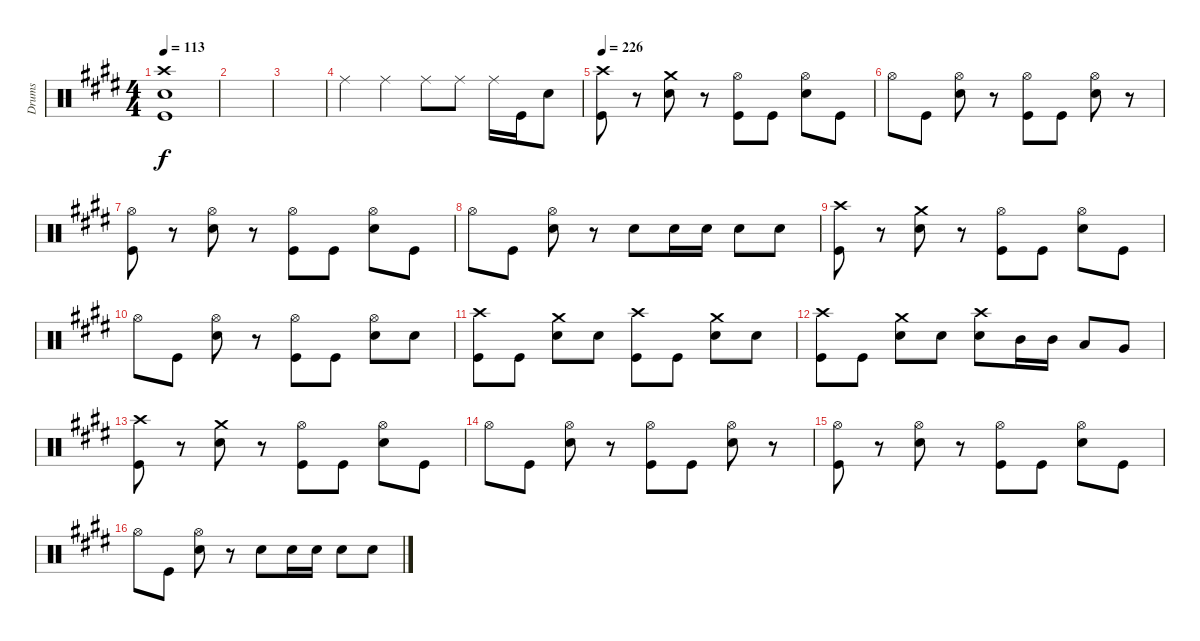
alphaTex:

\track ("Drums" "Drums") {instrument percussion}
\staff {score}
\articulation defaults
\ts (4 4)
\tempo 113
\clef neutral
\ks e
("Crash high (hit)" "Snare (hit) 2" "Kick (hit)").1{dy f} |
|
|
"Ride (middle)".4 "Ride (middle)".4 "Ride (middle)".8 "Ride (middle)".8 "Ride (middle)".16 "Kick (hit)".16 "Snare (hit) 2".8 |
\tempo 226
("Crash high (hit)" "Kick (hit)").8 r.8 ("Crash medium (hit)" "Snare (hit) 2").8 r.8 ("Hi-Hat (open)" "Kick (hit)").8 "Kick (hit)".8 ("Hi-Hat (open)" "Snare (hit) 2").8 "Kick (hit)".8 |
"Hi-Hat (open)".8 "Kick (hit)".8 ("Hi-Hat (open)" "Snare (hit) 2").8 r.8 ("Hi-Hat (open)" "Kick (hit)").8 "Kick (hit)".8 ("Hi-Hat (open)" "Snare (hit) 2").8 r.8 |
("Hi-Hat (open)" "Kick (hit)").8 r.8 ("Hi-Hat (open)" "Snare (hit) 2").8 r.8 ("Hi-Hat (open)" "Kick (hit)").8 "Kick (hit)".8 ("Hi-Hat (open)" "Snare (hit) 2").8 "Kick (hit)".8 |
"Hi-Hat (open)".8 "Kick (hit)".8 ("Hi-Hat (open)" "Snare (hit) 2").8 r.8 "Snare (hit) 2".8 "Snare (hit) 2".16 "Snare (hit) 2".16 "Snare (hit) 2".8 "Snare (hit) 2".8 |
("Crash high (hit)" "Kick (hit)").8 r.8 ("Crash medium (hit)" "Snare (hit) 2").8 r.8 ("Hi-Hat (open)" "Kick (hit)").8 "Kick (hit)".8 ("Hi-Hat (open)" "Snare (hit) 2").8 "Kick (hit)".8 |
"Hi-Hat (open)".8 "Kick (hit)".8 ("Hi-Hat (open)" "Snare (hit) 2").8 r.8 ("Hi-Hat (open)" "Kick (hit)").8 "Kick (hit)".8 ("Hi-Hat (open)" "Snare (hit) 2").8 "Snare (hit) 2".8 |
("Crash high (hit)" "Kick (hit)").8 "Kick (hit)".8 ("Crash medium (hit)" "Snare (hit) 2").8 "Snare (hit) 2".8 ("Crash high (hit)" "Kick (hit)").8 "Kick (hit)".8 ("Crash medium (hit)" "Snare (hit) 2").8 "Snare (hit) 2".8 |
("Crash high (hit)" "Kick (hit)").8 "Kick (hit)".8 ("Crash medium (hit)" "Snare (hit) 2").8 "Snare (hit) 2".8 ("Crash high (hit)" "Snare (hit) 2").8 "Mid Tom (hit)".16 "Mid Tom (hit)".16 "Low Tom (hit)".8 "Very Low Tom (hit)".8 |
("Crash high (hit)" "Kick (hit)").8 r.8 ("Crash medium (hit)" "Snare (hit) 2").8 r.8 ("Hi-Hat (open)" "Kick (hit)").8 "Kick (hit)".8 ("Hi-Hat (open)" "Snare (hit) 2").8 "Kick (hit)".8 |
"Hi-Hat (open)".8 "Kick (hit)".8 ("Hi-Hat (open)" "Snare (hit) 2").8 r.8 ("Hi-Hat (open)" "Kick (hit)").8 "Kick (hit)".8 ("Hi-Hat (open)" "Snare (hit) 2").8 r.8 |
("Hi-Hat (open)" "Kick (hit)").8 r.8 ("Hi-Hat (open)" "Snare (hit) 2").8 r.8 ("Hi-Hat (open)" "Kick (hit)").8 "Kick (hit)".8 ("Hi-Hat (open)" "Snare (hit) 2").8 "Kick (hit)".8 |
"Hi-Hat (open)".8 "Kick (hit)".8 ("Hi-Hat (open)" "Snare (hit) 2").8 r.8 "Snare (hit) 2".8 "Snare (hit) 2".16 "Snare (hit) 2".16 "Snare (hit) 2".8 "Snare (hit) 2".8
